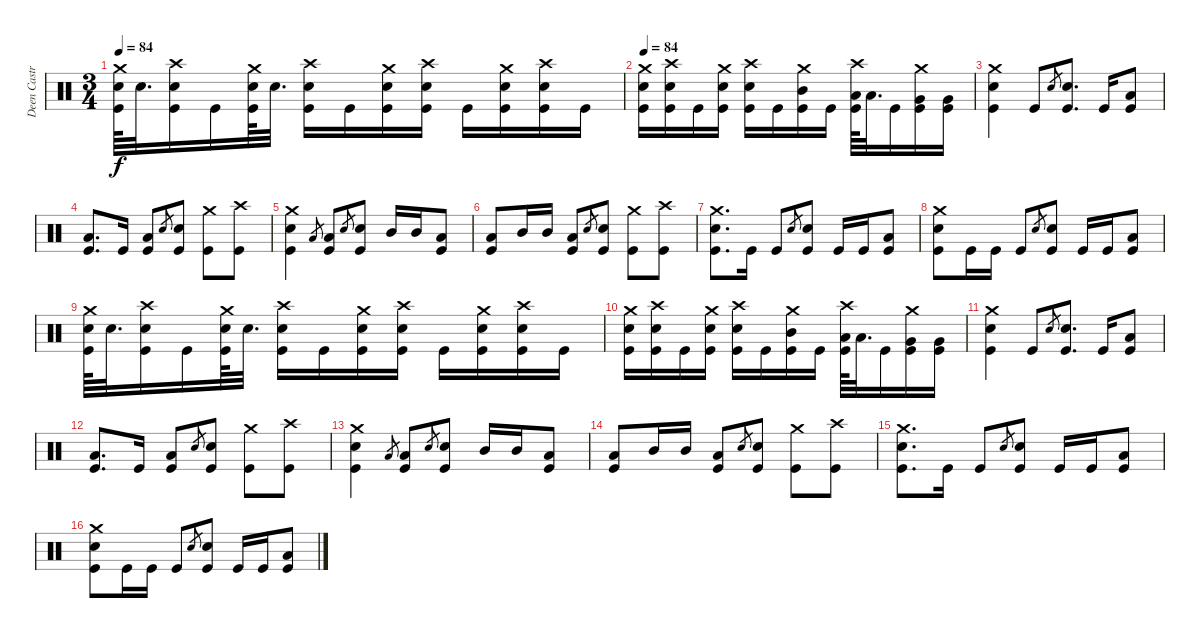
\track ("Deen Castronovo" "Deen Castr") {instrument percussion}
\staff {score}
\articulation defaults
\ts (3 4)
\tempo 84
\clef neutral
\ks c
("Crash medium (hit)" "Snare (hit) 2" "Kick (hit)").64{dy f} "Snare (hit) 2".32{d} ("Crash high (hit)" "Snare (hit) 2" "Kick (hit)").16 "Kick (hit)".16 ("Crash medium (hit)" "Snare (hit) 2" "Kick (hit)").64 "Snare (hit) 2".32{d} ("Crash high (hit)" "Snare (hit) 2" "Kick (hit)").16 "Kick (hit)".16 ("Crash medium (hit)" "Snare (hit) 2" "Kick (hit)").16 ("Crash high (hit)" "Snare (hit) 2" "Kick (hit)").16 "Kick (hit)".16 ("Crash medium (hit)" "Snare (hit) 2" "Kick (hit)").16 ("Crash high (hit)" "Snare (hit) 2" "Kick (hit)").16 "Kick (hit)".16 |
\tempo 84
("Crash medium (hit)" "Snare (hit) 2" "Kick (hit)").16 ("Crash high (hit)" "Snare (hit) 2" "Kick (hit)").16 "Kick (hit)".16 ("Crash medium (hit)" "Snare (hit) 2" "Kick (hit)").16 ("Crash high (hit)" "Snare (hit) 2" "Kick (hit)").16 "Kick (hit)".16 ("Crash medium (hit)" "Mid Tom (hit)" "Kick (hit)").16 "Kick (hit)".16 ("Crash high (hit)" "Low Tom (hit)" "Kick (hit)").64 "Low Tom (hit)".32{d} "Kick (hit)".16 ("Crash medium (hit)" "Very Low Tom (hit)" "Kick (hit)").16 ("Very Low Tom (hit)" "Kick (hit)").16 |
("Crash medium (hit)" "Snare (hit) 2" "Kick (hit)").4 "Kick (hit)".8 "Snare (hit) 2".8{gr} ("Snare (hit) 2" "Kick (hit)").8{d} "Kick (hit)".16 ("Low Tom (hit)" "Kick (hit)").8 |
("Low Tom (hit)" "Kick (hit)").8{d} "Kick (hit)".16 ("Low Tom (hit)" "Kick (hit)").8 "Snare (hit) 2".8{gr} ("Snare (hit) 2" "Kick (hit)").8 ("Crash medium (hit)" "Kick (hit)").8 ("Crash high (hit)" "Kick (hit)").8 |
("Crash medium (hit)" "Snare (hit) 2" "Kick (hit)").4 "Low Tom (hit)".8{gr} ("Low Tom (hit)" "Kick (hit)").8 "Snare (hit) 2".8{gr} ("Snare (hit) 2" "Kick (hit)").8 "Mid Tom (hit)".16 "Mid Tom (hit)".16 ("Low Tom (hit)" "Kick (hit)").8 |
("Low Tom (hit)" "Kick (hit)").8 "Mid Tom (hit)".16 "Mid Tom (hit)".16 ("Low Tom (hit)" "Kick (hit)").8 "Snare (hit) 2".8{gr} ("Snare (hit) 2" "Kick (hit)").8 ("Crash medium (hit)" "Kick (hit)").8 ("Crash high (hit)" "Kick (hit)").8 |
("Crash medium (hit)" "Snare (hit) 2" "Kick (hit)").8{d} "Kick (hit)".16 "Kick (hit)".8 "Snare (hit) 2".8{gr} ("Snare (hit) 2" "Kick (hit)").8 "Kick (hit)".16 "Kick (hit)".16 ("Low Tom (hit)" "Kick (hit)").8 |
("Crash medium (hit)" "Snare (hit) 2" "Kick (hit)").8 "Kick (hit)".16 "Kick (hit)".16 "Kick (hit)".8 "Snare (hit) 2".8{gr} ("Snare (hit) 2" "Kick (hit)").8 "Kick (hit)".16 "Kick (hit)".16 ("Low Tom (hit)" "Kick (hit)").8 |
("Crash medium (hit)" "Snare (hit) 2" "Kick (hit)").64 "Snare (hit) 2".32{d} ("Crash high (hit)" "Snare (hit) 2" "Kick (hit)").16 "Kick (hit)".16 ("Crash medium (hit)" "Snare (hit) 2" "Kick (hit)").64 "Snare (hit) 2".32{d} ("Crash high (hit)" "Snare (hit) 2" "Kick (hit)").16 "Kick (hit)".16 ("Crash medium (hit)" "Snare (hit) 2" "Kick (hit)").16 ("Crash high (hit)" "Snare (hit) 2" "Kick (hit)").16 "Kick (hit)".16 ("Crash medium (hit)" "Snare (hit) 2" "Kick (hit)").16 ("Crash high (hit)" "Snare (hit) 2" "Kick (hit)").16 "Kick (hit)".16 |
("Crash medium (hit)" "Snare (hit) 2" "Kick (hit)").16 ("Crash high (hit)" "Snare (hit) 2" "Kick (hit)").16 "Kick (hit)".16 ("Crash medium (hit)" "Snare (hit) 2" "Kick (hit)").16 ("Crash high (hit)" "Snare (hit) 2" "Kick (hit)").16 "Kick (hit)".16 ("Crash medium (hit)" "Mid Tom (hit)" "Kick (hit)").16 "Kick (hit)".16 ("Crash high (hit)" "Low Tom (hit)" "Kick (hit)").64 "Low Tom (hit)".32{d} "Kick (hit)".16 ("Crash medium (hit)" "Very Low Tom (hit)" "Kick (hit)").16 ("Very Low Tom (hit)" "Kick (hit)").16 |
("Crash medium (hit)" "Snare (hit) 2" "Kick (hit)").4 "Kick (hit)".8 "Snare (hit) 2".8{gr} ("Snare (hit) 2" "Kick (hit)").8{d} "Kick (hit)".16 ("Low Tom (hit)" "Kick (hit)").8 |
("Low Tom (hit)" "Kick (hit)").8{d} "Kick (hit)".16 ("Low Tom (hit)" "Kick (hit)").8 "Snare (hit) 2".8{gr} ("Snare (hit) 2" "Kick (hit)").8 ("Crash medium (hit)" "Kick (hit)").8 ("Crash high (hit)" "Kick (hit)").8 |
("Crash medium (hit)" "Snare (hit) 2" "Kick (hit)").4 "Low Tom (hit)".8{gr} ("Low Tom (hit)" "Kick (hit)").8 "Snare (hit) 2".8{gr} ("Snare (hit) 2" "Kick (hit)").8 "Mid Tom (hit)".16 "Mid Tom (hit)".16 ("Low Tom (hit)" "Kick (hit)").8 |
("Low Tom (hit)" "Kick (hit)").8 "Mid Tom (hit)".16 "Mid Tom (hit)".16 ("Low Tom (hit)" "Kick (hit)").8 "Snare (hit) 2".8{gr} ("Snare (hit) 2" "Kick (hit)").8 ("Crash medium (hit)" "Kick (hit)").8 ("Crash high (hit)" "Kick (hit)").8 |
("Crash medium (hit)" "Snare (hit) 2" "Kick (hit)").8{d} "Kick (hit)".16 "Kick (hit)".8 "Snare (hit) 2".8{gr} ("Snare (hit) 2" "Kick (hit)").8 "Kick (hit)".16 "Kick (hit)".16 ("Low Tom (hit)" "Kick (hit)").8 |
("Crash medium (hit)" "Snare (hit) 2" "Kick (hit)").8 "Kick (hit)".16 "Kick (hit)".16 "Kick (hit)".8 "Snare (hit) 2".8{gr} ("Snare (hit) 2" "Kick (hit)").8 "Kick (hit)".16 "Kick (hit)".16 ("Low Tom (hit)" "Kick (hit)").8
